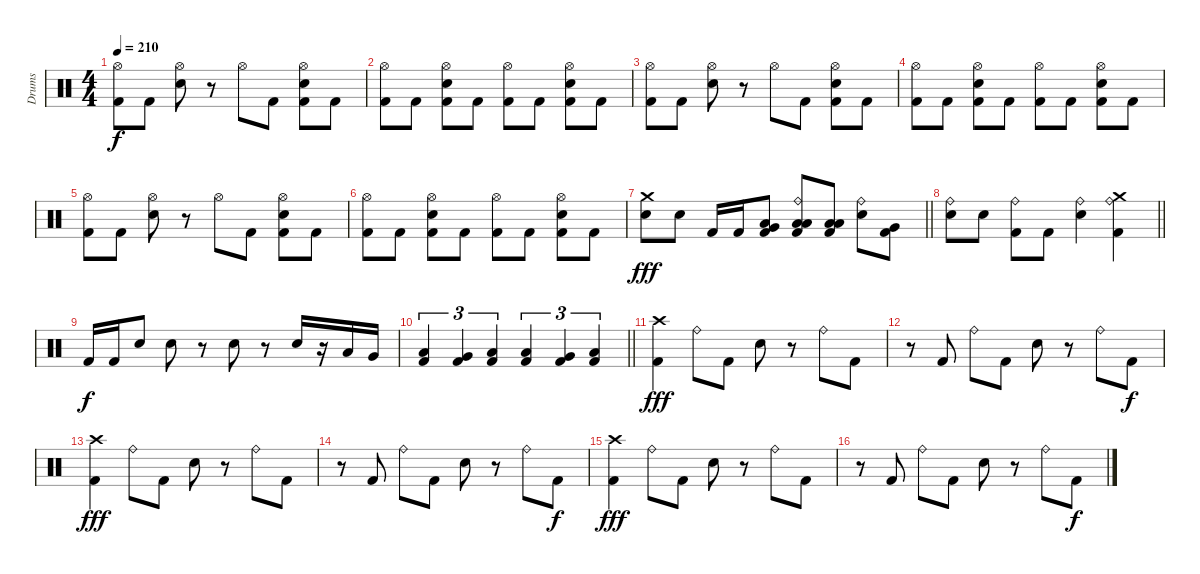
\track ("Drums" "Drums") {instrument percussion}
\staff {score}
\articulation defaults
\ts (4 4)
\tempo 210
\clef neutral
\ks c
("Hi-Hat (open)" "Kick (hit) 2").8{dy f} "Kick (hit) 2".8 ("Hi-Hat (open)" "Electric Snare (hit)").8 r.8 "Hi-Hat (open)".8 "Kick (hit) 2".8 ("Hi-Hat (open)" "Electric Snare (hit)" "Kick (hit) 2").8 "Kick (hit) 2".8 |
("Hi-Hat (open)" "Kick (hit) 2").8 "Kick (hit) 2".8 ("Hi-Hat (open)" "Electric Snare (hit)" "Kick (hit) 2").8 "Kick (hit) 2".8 ("Hi-Hat (open)" "Kick (hit) 2").8 "Kick (hit) 2".8 ("Hi-Hat (open)" "Electric Snare (hit)" "Kick (hit) 2").8 "Kick (hit) 2".8 |
("Hi-Hat (open)" "Kick (hit) 2").8 "Kick (hit) 2".8 ("Hi-Hat (open)" "Electric Snare (hit)").8 r.8 "Hi-Hat (open)".8 "Kick (hit) 2".8 ("Hi-Hat (open)" "Electric Snare (hit)" "Kick (hit) 2").8 "Kick (hit) 2".8 |
("Hi-Hat (open)" "Kick (hit) 2").8 "Kick (hit) 2".8 ("Hi-Hat (open)" "Electric Snare (hit)" "Kick (hit) 2").8 "Kick (hit) 2".8 ("Hi-Hat (open)" "Kick (hit) 2").8 "Kick (hit) 2".8 ("Hi-Hat (open)" "Electric Snare (hit)" "Kick (hit) 2").8 "Kick (hit) 2".8 |
("Hi-Hat (open)" "Kick (hit) 2").8 "Kick (hit) 2".8 ("Hi-Hat (open)" "Electric Snare (hit)").8 r.8 "Hi-Hat (open)".8 "Kick (hit) 2".8 ("Hi-Hat (open)" "Electric Snare (hit)" "Kick (hit) 2").8 "Kick (hit) 2".8 |
("Hi-Hat (open)" "Kick (hit) 2").8 "Kick (hit) 2".8 ("Hi-Hat (open)" "Electric Snare (hit)" "Kick (hit) 2").8 "Kick (hit) 2".8 ("Hi-Hat (open)" "Kick (hit) 2").8 "Kick (hit) 2".8 ("Hi-Hat (open)" "Electric Snare (hit)" "Kick (hit) 2").8 "Kick (hit) 2".8 |
\barLineRight lightlight
("Crash medium (hit)" "Electric Snare (hit)").8{dy fff} "Electric Snare (hit)".8 "Kick (hit) 2".16 "Kick (hit) 2".16 ("Very Low Tom (hit)" "Low Floor Tom (hit)" "Kick (hit) 2").8 ("Ride (bell)" "Low Tom (hit)" "Low Floor Tom (hit)" "Kick (hit) 2").8 ("Low Floor Tom (hit)" "Low Floor Tom (hit)" "Kick (hit) 2").8 ("Ride (bell)" "Electric Snare (hit)").8 ("Very Low Tom (hit)" "Kick (hit) 2").8 |
\barLineRight lightlight
("Ride (bell)" "Electric Snare (hit)").8 "Electric Snare (hit)".8 ("Ride (bell)" "Kick (hit) 2").8 "Kick (hit) 2".8 ("Ride (bell)" "Electric Snare (hit)").4 ("Ride (bell)" "Crash medium (hit)" "Kick (hit) 2").4 |
"Kick (hit) 2".16{dy f} "Kick (hit) 2".16 "Electric Snare (hit)".8 "Electric Snare (hit)".8 r.8 "Electric Snare (hit)".8 r.8 "Electric Snare (hit)".16 r.16 "Low Tom (hit)".16 "Very Low Tom (hit)".16 |
\barLineRight lightlight
("Low Tom (hit)" "Kick (hit) 2").4{tu (3 2)} ("Very Low Tom (hit)" "Kick (hit) 2").4{tu (3 2)} ("Low Floor Tom (hit)" "Kick (hit) 2").4{tu (3 2)} ("Low Tom (hit)" "Kick (hit) 2").4{tu (3 2)} ("Very Low Tom (hit)" "Kick (hit) 2").4{tu (3 2)} ("Low Floor Tom (hit)" "Kick (hit) 2").4{tu (3 2)} |
("Crash high (hit)" "Kick (hit) 2").4{dy fff} "Ride (bell)".8 "Kick (hit) 2".8 "Electric Snare (hit)".8 r.8 "Ride (bell)".8 "Kick (hit) 2".8 |
r.8 "Kick (hit) 2".8 "Ride (bell)".8 "Kick (hit) 2".8 "Electric Snare (hit)".8 r.8 "Ride (bell)".8 "Kick (hit) 2".8{dy f} |
("Crash high (hit)" "Kick (hit) 2").4{dy fff} "Ride (bell)".8 "Kick (hit) 2".8 "Electric Snare (hit)".8 r.8 "Ride (bell)".8 "Kick (hit) 2".8 |
r.8 "Kick (hit) 2".8 "Ride (bell)".8 "Kick (hit) 2".8 "Electric Snare (hit)".8 r.8 "Ride (bell)".8 "Kick (hit) 2".8{dy f} |
("Crash high (hit)" "Kick (hit) 2").4{dy fff} "Ride (bell)".8 "Kick (hit) 2".8 "Electric Snare (hit)".8 r.8 "Ride (bell)".8 "Kick (hit) 2".8 |
r.8 "Kick (hit) 2".8 "Ride (bell)".8 "Kick (hit) 2".8 "Electric Snare (hit)".8 r.8 "Ride (bell)".8 "Kick (hit) 2".8{dy f}
